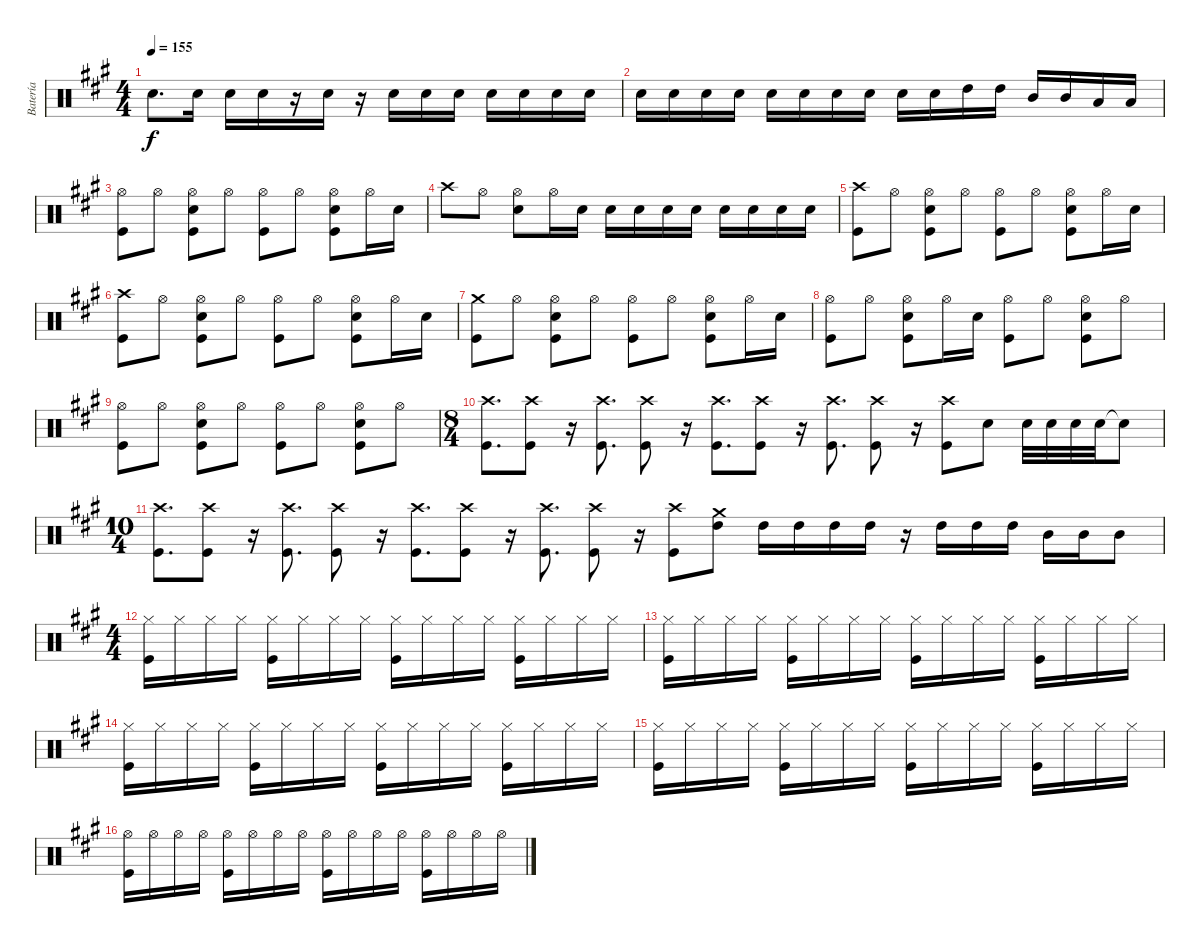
\track ("Batería" "Batería") {instrument percussion}
\staff {score}
\articulation defaults
\ts (4 4)
\tempo 155
\clef neutral
\ks f#minor "Snare (hit) 2".8{d dy f} "Snare (hit) 2".16 "Snare (hit) 2".16 "Snare (hit) 2".16
r.16 "Snare (hit) 2".16 r.16 "Snare (hit) 2".16 "Snare (hit) 2".16 "Snare (hit) 2".16 "Snare (hit) 2".16 "Snare (hit) 2".16 "Snare (hit) 2".16 "Snare (hit) 2".16 |
"Snare (hit) 2".16 "Snare (hit) 2".16 "Snare (hit) 2".16 "Snare (hit) 2".16 "Snare (hit) 2".16 "Snare (hit) 2".16 "Snare (hit) 2".16 "Snare (hit) 2".16 "Snare (hit) 2".16 "Snare (hit) 2".16 "High Tom (hit)".16 "High Tom (hit)".16 "Mid Tom (hit)".16 "Mid Tom (hit)".16 "Low Tom (hit)".16 "Low Tom (hit)".16 |
("Hi-Hat (open)" "Kick (hit)").8 "Hi-Hat (open)".8 ("Snare (hit) 2" "Hi-Hat (open)" "Kick (hit)").8 "Hi-Hat (open)".8 ("Hi-Hat (open)" "Kick (hit)").8 "Hi-Hat (open)".8 ("Snare (hit) 2" "Hi-Hat (open)" "Kick (hit)").8 "Hi-Hat (open)".16 "Snare (hit) 2".16 |
"Crash high (hit)".8 "Hi-Hat (open)".8 ("Snare (hit) 2" "Hi-Hat (open)").8 "Hi-Hat (open)".16 "Snare (hit) 2".16 "Snare (hit) 2".16 "Snare (hit) 2".16 "Snare (hit) 2".16 "Snare (hit) 2".16 "Snare (hit) 2".16 "Snare (hit) 2".16 "Snare (hit) 2".16 "Snare (hit) 2".16 |
("Crash high (hit)" "Kick (hit)").8 "Hi-Hat (open)".8 ("Snare (hit) 2" "Hi-Hat (open)" "Kick (hit)").8 "Hi-Hat (open)".8 ("Hi-Hat (open)" "Kick (hit)").8 "Hi-Hat (open)".8 ("Snare (hit) 2" "Hi-Hat (open)" "Kick (hit)").8 "Hi-Hat (open)".16 "Snare (hit) 2".16 |
("Crash high (hit)" "Kick (hit)").8 "Hi-Hat (open)".8 ("Snare (hit) 2" "Hi-Hat (open)" "Kick (hit)").8 "Hi-Hat (open)".8 ("Hi-Hat (open)" "Kick (hit)").8 "Hi-Hat (open)".8 ("Snare (hit) 2" "Hi-Hat (open)" "Kick (hit)").8 "Hi-Hat (open)".16 "Snare (hit) 2".16 |
("Crash medium (hit)" "Kick (hit)").8 "Hi-Hat (open)".8 ("Snare (hit) 2" "Hi-Hat (open)" "Kick (hit)").8 "Hi-Hat (open)".8 ("Hi-Hat (open)" "Kick (hit)").8 "Hi-Hat (open)".8 ("Snare (hit) 2" "Hi-Hat (open)" "Kick (hit)").8 "Hi-Hat (open)".16 "Snare (hit) 2".16 |
("Hi-Hat (open)" "Kick (hit)").8 "Hi-Hat (open)".8 ("Snare (hit) 2" "Hi-Hat (open)" "Kick (hit)").8 "Hi-Hat (open)".16 "Snare (hit) 2".16 ("Hi-Hat (open)" "Kick (hit)").8 "Hi-Hat (open)".8 ("Snare (hit) 2" "Hi-Hat (open)" "Kick (hit)").8 "Hi-Hat (open)".8 |
("Hi-Hat (open)" "Kick (hit)").8 "Hi-Hat (open)".8 ("Snare (hit) 2" "Hi-Hat (open)" "Kick (hit)").8 "Hi-Hat (open)".8 ("Hi-Hat (open)" "Kick (hit)").8 "Hi-Hat (open)".8 ("Snare (hit) 2" "Hi-Hat (open)" "Kick (hit)").8 "Hi-Hat (open)".8 |
\ts (8 4)
("Crash high (hit)" "Kick (hit)").8{d} ("Crash high (hit)" "Kick (hit)").8 r.16 ("Crash high (hit)" "Kick (hit)").8{d} ("Crash high (hit)" "Kick (hit)").8 r.16 ("Crash high (hit)" "Kick (hit)").8{d} ("Crash high (hit)" "Kick (hit)").8 r.16 ("Crash high (hit)" "Kick (hit)").8{d} ("Crash high (hit)" "Kick (hit)").8 r.16 ("Crash high (hit)" "Kick (hit)").8 "Snare (hit) 2".8 "Snare (hit) 2".32 "Snare (hit) 2".32 "Snare (hit) 2".32 "Snare (hit) 2".32 "Snare (hit)"{t}.8 |
\ts (10 4)
("Crash high (hit)" "Kick (hit)").8{d} ("Crash high (hit)" "Kick (hit)").8 r.16 ("Crash high (hit)" "Kick (hit)").8{d} ("Crash high (hit)" "Kick (hit)").8 r.16 ("Crash high (hit)" "Kick (hit)").8{d} ("Crash high (hit)" "Kick (hit)").8 r.16 ("Crash high (hit)" "Kick (hit)").8{d} ("Crash high (hit)" "Kick (hit)").8 r.16 ("Crash high (hit)" "Kick (hit)").8 ("High Tom (hit)" "Crash medium (hit)").8 "High Tom (hit)".16 "High Tom (hit)".16 "High Tom (hit)".16 "High Tom (hit)".16 r.16 "High Tom (hit)".16 "High Tom (hit)".16 "High Tom (hit)".16 "Mid Tom (hit)".16 "Mid Tom (hit)".16 "Mid Tom (hit)".8 |
\ts (4 4)
("Hi-Hat (closed)" "Kick (hit)").16 "Hi-Hat (closed)".16 "Hi-Hat (closed)".16 "Hi-Hat (closed)".16 ("Hi-Hat (closed)" "Kick (hit)").16 "Hi-Hat (closed)".16 "Hi-Hat (closed)".16 "Hi-Hat (closed)".16 ("Hi-Hat (closed)" "Kick (hit)").16 "Hi-Hat (closed)".16 "Hi-Hat (closed)".16 "Hi-Hat (closed)".16 ("Hi-Hat (closed)" "Kick (hit)").16 "Hi-Hat (closed)".16 "Hi-Hat (closed)".16 "Hi-Hat (closed)".16 |
("Hi-Hat (closed)" "Kick (hit)").16 "Hi-Hat (closed)".16 "Hi-Hat (closed)".16 "Hi-Hat (closed)".16 ("Hi-Hat (closed)" "Kick (hit)").16 "Hi-Hat (closed)".16 "Hi-Hat (closed)".16 "Hi-Hat (closed)".16 ("Hi-Hat (closed)" "Kick (hit)").16 "Hi-Hat (closed)".16 "Hi-Hat (closed)".16 "Hi-Hat (closed)".16 ("Hi-Hat (closed)" "Kick (hit)").16 "Hi-Hat (closed)".16 "Hi-Hat (closed)".16 "Hi-Hat (closed)".16 |
("Hi-Hat (closed)" "Kick (hit)").16 "Hi-Hat (closed)".16 "Hi-Hat (closed)".16 "Hi-Hat (closed)".16 ("Hi-Hat (closed)" "Kick (hit)").16 "Hi-Hat (closed)".16 "Hi-Hat (closed)".16 "Hi-Hat (closed)".16 ("Hi-Hat (closed)" "Kick (hit)").16 "Hi-Hat (closed)".16 "Hi-Hat (closed)".16 "Hi-Hat (closed)".16 ("Hi-Hat (closed)" "Kick (hit)").16 "Hi-Hat (closed)".16 "Hi-Hat (closed)".16 "Hi-Hat (closed)".16 |
("Hi-Hat (closed)" "Kick (hit)").16 "Hi-Hat (closed)".16 "Hi-Hat (closed)".16 "Hi-Hat (closed)".16 ("Hi-Hat (closed)" "Kick (hit)").16 "Hi-Hat (closed)".16 "Hi-Hat (closed)".16 "Hi-Hat (closed)".16 ("Hi-Hat (closed)" "Kick (hit)").16 "Hi-Hat (closed)".16 "Hi-Hat (closed)".16 "Hi-Hat (closed)".16 ("Hi-Hat (closed)" "Kick (hit)").16 "Hi-Hat (closed)".16 "Hi-Hat (closed)".16 "Hi-Hat (closed)".16 |
("Hi-Hat (open)" "Kick (hit)").16 "Hi-Hat (open)".16 "Hi-Hat (open)".16 "Hi-Hat (open)".16 ("Hi-Hat (open)" "Kick (hit)").16 "Hi-Hat (open)".16 "Hi-Hat (open)".16 "Hi-Hat (open)".16 ("Hi-Hat (open)" "Kick (hit)").16 "Hi-Hat (open)".16 "Hi-Hat (open)".16 "Hi-Hat (open)".16 ("Hi-Hat (open)" "Kick (hit)").16 "Hi-Hat (open)".16 "Hi-Hat (open)".16 "Hi-Hat (open)".16
